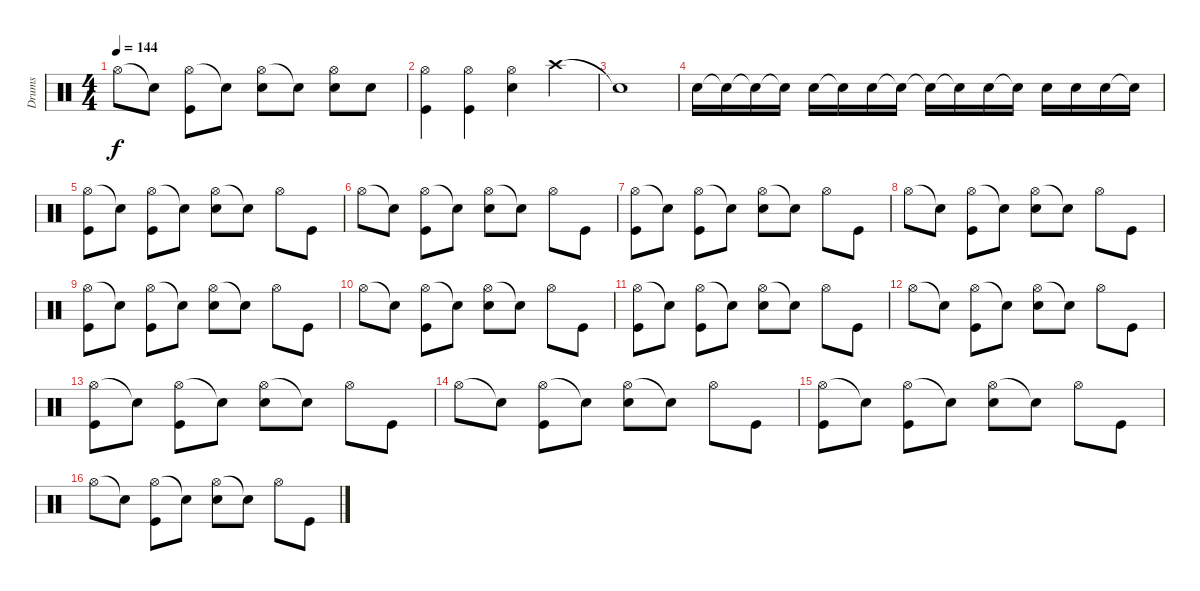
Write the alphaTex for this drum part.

\track ("Drums               " "Drums     ") {instrument percussion}
\staff {score}
\articulation defaults
\ts (4 4)
\tempo 144
\clef neutral
\ks c "Hi-Hat (open)".8{dy f} "Snare (hit)"{t}.8
("Hi-Hat (open)" "Kick (hit)").8 "Snare (hit)"{t}.8 ("Hi-Hat (open)" "Snare (hit) 2").8 "Snare (hit)"{t}.8 ("Hi-Hat (open)" "Snare (hit) 2").8 "Snare (hit) 2".8 |
("Hi-Hat (open)" "Kick (hit)").4 ("Hi-Hat (open)" "Kick (hit)").4 ("Hi-Hat (open)" "Snare (hit) 2").4 "Crash high (hit)".4 |
"Snare (hit)"{t}.1 |
"Snare (hit) 2".16 "Snare (hit)"{t}.16 "Snare (hit)"{t}.16 "Snare (hit)"{t}.16 "Snare (hit) 2".16 "Snare (hit)"{t}.16 "Snare (hit) 2".16 "Snare (hit)"{t}.16 "Snare (hit)"{t}.16 "Snare (hit)"{t}.16 "Snare (hit) 2".16 "Snare (hit)"{t}.16 "Snare (hit) 2".16 "Snare (hit) 2".16 "Snare (hit) 2".16 "Snare (hit)"{t}.16 |
("Hi-Hat (open)" "Kick (hit)").8 "Snare (hit)"{t}.8 ("Hi-Hat (open)" "Kick (hit)").8 "Snare (hit)"{t}.8 ("Hi-Hat (open)" "Snare (hit) 2").8 "Snare (hit)"{t}.8 "Hi-Hat (open)".8 "Kick (hit)".8 |
"Hi-Hat (open)".8 "Snare (hit)"{t}.8 ("Hi-Hat (open)" "Kick (hit)").8 "Snare (hit)"{t}.8 ("Hi-Hat (open)" "Snare (hit) 2").8 "Snare (hit)"{t}.8 "Hi-Hat (open)".8 "Kick (hit)".8 |
("Hi-Hat (open)" "Kick (hit)").8 "Snare (hit)"{t}.8 ("Hi-Hat (open)" "Kick (hit)").8 "Snare (hit)"{t}.8 ("Hi-Hat (open)" "Snare (hit) 2").8 "Snare (hit)"{t}.8 "Hi-Hat (open)".8 "Kick (hit)".8 |
"Hi-Hat (open)".8 "Snare (hit)"{t}.8 ("Hi-Hat (open)" "Kick (hit)").8 "Snare (hit)"{t}.8 ("Hi-Hat (open)" "Snare (hit) 2").8 "Snare (hit)"{t}.8 "Hi-Hat (open)".8 "Kick (hit)".8 |
("Hi-Hat (open)" "Kick (hit)").8 "Snare (hit)"{t}.8 ("Hi-Hat (open)" "Kick (hit)").8 "Snare (hit)"{t}.8 ("Hi-Hat (open)" "Snare (hit) 2").8 "Snare (hit)"{t}.8 "Hi-Hat (open)".8 "Kick (hit)".8 |
"Hi-Hat (open)".8 "Snare (hit)"{t}.8 ("Hi-Hat (open)" "Kick (hit)").8 "Snare (hit)"{t}.8 ("Hi-Hat (open)" "Snare (hit) 2").8 "Snare (hit)"{t}.8 "Hi-Hat (open)".8 "Kick (hit)".8 |
("Hi-Hat (open)" "Kick (hit)").8 "Snare (hit)"{t}.8 ("Hi-Hat (open)" "Kick (hit)").8 "Snare (hit)"{t}.8 ("Hi-Hat (open)" "Snare (hit) 2").8 "Snare (hit)"{t}.8 "Hi-Hat (open)".8 "Kick (hit)".8 |
"Hi-Hat (open)".8 "Snare (hit)"{t}.8 ("Hi-Hat (open)" "Kick (hit)").8 "Snare (hit)"{t}.8 ("Hi-Hat (open)" "Snare (hit) 2").8 "Snare (hit)"{t}.8 "Hi-Hat (open)".8 "Kick (hit)".8 |
("Hi-Hat (open)" "Kick (hit)").8 "Snare (hit)"{t}.8 ("Hi-Hat (open)" "Kick (hit)").8 "Snare (hit)"{t}.8 ("Hi-Hat (open)" "Snare (hit) 2").8 "Snare (hit)"{t}.8 "Hi-Hat (open)".8 "Kick (hit)".8 |
"Hi-Hat (open)".8 "Snare (hit)"{t}.8 ("Hi-Hat (open)" "Kick (hit)").8 "Snare (hit)"{t}.8 ("Hi-Hat (open)" "Snare (hit) 2").8 "Snare (hit)"{t}.8 "Hi-Hat (open)".8 "Kick (hit)".8 |
("Hi-Hat (open)" "Kick (hit)").8 "Snare (hit)"{t}.8 ("Hi-Hat (open)" "Kick (hit)").8 "Snare (hit)"{t}.8 ("Hi-Hat (open)" "Snare (hit) 2").8 "Snare (hit)"{t}.8 "Hi-Hat (open)".8 "Kick (hit)".8 |
"Hi-Hat (open)".8 "Snare (hit)"{t}.8 ("Hi-Hat (open)" "Kick (hit)").8 "Snare (hit)"{t}.8 ("Hi-Hat (open)" "Snare (hit) 2").8 "Snare (hit)"{t}.8 "Hi-Hat (open)".8 "Kick (hit)".8
